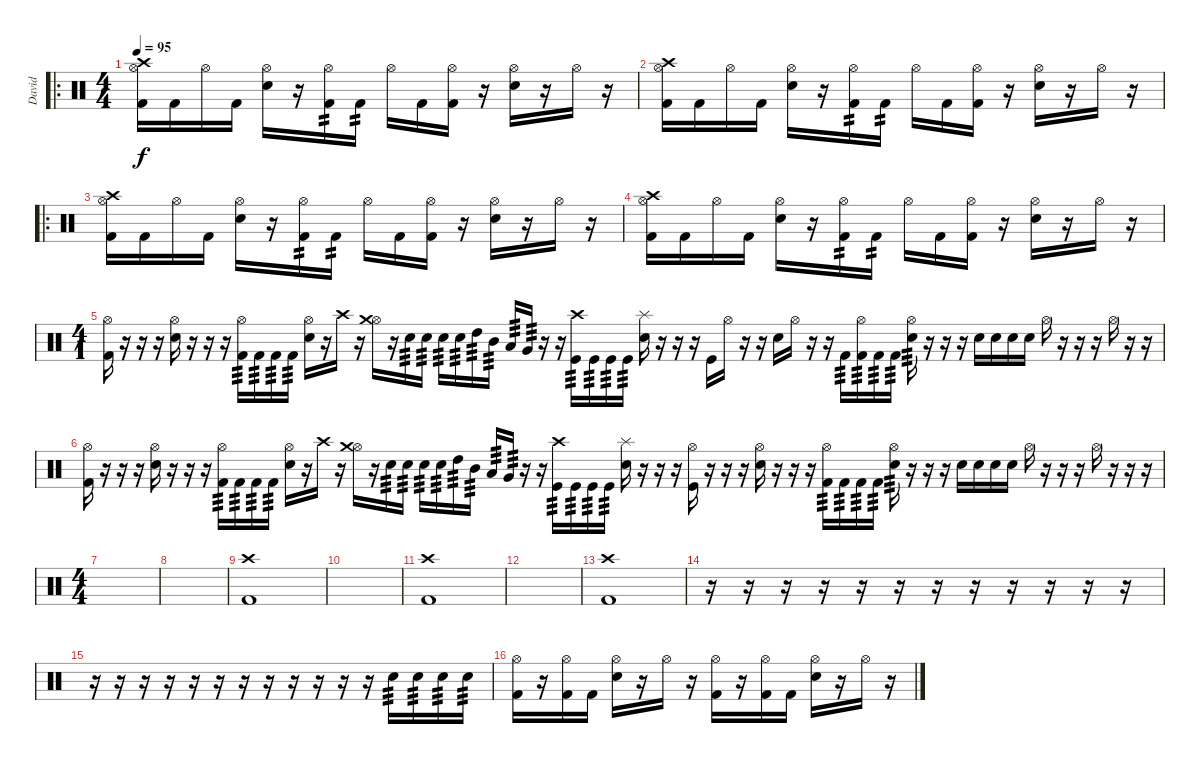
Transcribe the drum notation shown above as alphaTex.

\track ("David" "David") {instrument percussion}
\staff {score}
\articulation defaults
\ro
\ts (4 4)
\tempo 95
\clef neutral
\ks c
("Hi-Hat (open)" "Crash high (hit)" "Kick (hit) 2").16{dy f} "Kick (hit) 2".16 "Hi-Hat (open)".16 "Kick (hit) 2".16 ("Hi-Hat (open)" "Snare (hit) 2").16 r.16 ("Hi-Hat (open)" "Kick (hit) 2").16{tp 2} "Kick (hit) 2".16{tp 2} "Hi-Hat (open)".16 "Kick (hit) 2".16 ("Hi-Hat (open)" "Kick (hit) 2").16 r.16 ("Hi-Hat (open)" "Snare (hit) 2").16 r.16 "Hi-Hat (open)".16 r.16 |
("Hi-Hat (open)" "Crash high (hit)" "Kick (hit) 2").16 "Kick (hit) 2".16 "Hi-Hat (open)".16 "Kick (hit) 2".16 ("Hi-Hat (open)" "Snare (hit) 2").16 r.16 ("Hi-Hat (open)" "Kick (hit) 2").16{tp 2} "Kick (hit) 2".16{tp 2} "Hi-Hat (open)".16 "Kick (hit) 2".16 ("Hi-Hat (open)" "Kick (hit) 2").16 r.16 ("Hi-Hat (open)" "Snare (hit) 2").16 r.16 "Hi-Hat (open)".16 r.16 |
\ro
("Hi-Hat (open)" "Crash high (hit)" "Kick (hit) 2").16 "Kick (hit) 2".16 "Hi-Hat (open)".16 "Kick (hit) 2".16 ("Hi-Hat (open)" "Snare (hit) 2").16 r.16 ("Hi-Hat (open)" "Kick (hit) 2").16{tp 2} "Kick (hit) 2".16{tp 2} "Hi-Hat (open)".16 "Kick (hit) 2".16 ("Hi-Hat (open)" "Kick (hit) 2").16 r.16 ("Hi-Hat (open)" "Snare (hit) 2").16 r.16 "Hi-Hat (open)".16 r.16 |
("Hi-Hat (open)" "Crash high (hit)" "Kick (hit) 2").16 "Kick (hit) 2".16 "Hi-Hat (open)".16 "Kick (hit) 2".16 ("Hi-Hat (open)" "Snare (hit) 2").16 r.16 ("Hi-Hat (open)" "Kick (hit) 2").16{tp 2} "Kick (hit) 2".16{tp 2} "Hi-Hat (open)".16 "Kick (hit) 2".16 ("Hi-Hat (open)" "Kick (hit) 2").16 r.16 ("Hi-Hat (open)" "Snare (hit) 2").16 r.16 "Hi-Hat (open)".16 r.16 |
\ts (4 1)
("Hi-Hat (open)" "Kick (hit) 2").16 r.16 r.16 r.16 ("Hi-Hat (open)" "Snare (hit) 2").16 r.16 r.16 r.16 ("Hi-Hat (open)" "Kick (hit) 2").16{tp 3} "Kick (hit) 2".16{tp 3} "Kick (hit) 2".16{tp 3} "Kick (hit) 2".16{tp 3} ("Hi-Hat (open)" "Snare (hit) 2").16 r.16 "Crash high (hit)".16 r.16 ("Hi-Hat (open)" "Crash medium (hit)").16 r.16 "Snare (hit) 2".16{tp 3} "Snare (hit) 2".16{tp 3} "Snare (hit) 2".16{tp 3} "Snare (hit) 2".16{tp 3} "High Tom (hit)".16{tp 3} "Mid Tom (hit)".16{tp 3} "Low Tom (hit)".16{tp 3} "Very Low Tom (hit)".16{tp 3} r.16 r.16 ("Crash high (hit)" "Kick (hit)").16{tp 3} "Kick (hit)".16{tp 3} "Kick (hit)".16{tp 3} "Kick (hit)".16{tp 3} ("Splash (hit)" "Snare (hit) 2").16 r.16 r.16 r.16 "Kick (hit)".16 "Hi-Hat (open)".16 r.16 r.16 "Snare (hit) 2".16 "Hi-Hat (open)".16 r.16 r.16 "Kick (hit) 2".16{tp 3} ("Kick (hit) 2" "Hi-Hat (open)").16{tp 3} "Kick (hit) 2".16{tp 3} "Kick (hit) 2".16{tp 3} ("Hi-Hat (open)" "Snare (hit) 2").16{tp 3} r.16 r.16 r.16 "Snare (hit) 2".16 "Snare (hit) 2".16 "Snare (hit) 2".16 "Snare (hit) 2".16 "Hi-Hat (open)".16 r.16 r.16 r.16 "Hi-Hat (open)".16 r.16 r.16 |
("Hi-Hat (open)" "Kick (hit) 2").16 r.16 r.16 r.16 ("Hi-Hat (open)" "Snare (hit) 2").16 r.16 r.16 r.16 ("Hi-Hat (open)" "Kick (hit) 2").16{tp 3} "Kick (hit) 2".16{tp 3} "Kick (hit) 2".16{tp 3} "Kick (hit) 2".16{tp 3} ("Hi-Hat (open)" "Snare (hit) 2").16 r.16 "Crash high (hit)".16 r.16 ("Hi-Hat (open)" "Crash medium (hit)").16 r.16 "Snare (hit) 2".16{tp 3} "Snare (hit) 2".16{tp 3} "Snare (hit) 2".16{tp 3} "Snare (hit) 2".16{tp 3} "High Tom (hit)".16{tp 3} "Mid Tom (hit)".16{tp 3} "Low Tom (hit)".16{tp 3} "Very Low Tom (hit)".16{tp 3} r.16 r.16 ("Crash high (hit)" "Kick (hit)").16{tp 3} "Kick (hit)".16{tp 3} "Kick (hit)".16{tp 3} "Kick (hit)".16{tp 3} ("Splash (hit)" "Snare (hit) 2").16 r.16 r.16 r.16 ("Hi-Hat (open)" "Kick (hit)").16 r.16 r.16 r.16 ("Hi-Hat (open)" "Snare (hit) 2").16 r.16 r.16 r.16 ("Hi-Hat (open)" "Kick (hit) 2").16{tp 3} "Kick (hit) 2".16{tp 3} "Kick (hit) 2".16{tp 3} "Kick (hit) 2".16{tp 3} ("Hi-Hat (open)" "Snare (hit) 2").16{tp 3} r.16 r.16 r.16 "Snare (hit) 2".16 "Snare (hit) 2".16 "Snare (hit) 2".16 "Snare (hit) 2".16 "Hi-Hat (open)".16 r.16 r.16 r.16 "Hi-Hat (open)".16 r.16 r.16 r.16 |
\ts (4 4)
|
|
("Crash high (hit)" "Kick (hit) 2").1 |
|
("Crash high (hit)" "Kick (hit) 2").1 |
|
("Crash high (hit)" "Kick (hit) 2").1 |
r.16 r.16 r.16 r.16 r.16 r.16 r.16 r.16 r.16 r.16 r.16 r.16 |
r.16 r.16 r.16 r.16 r.16 r.16 r.16 r.16 r.16 r.16 r.16 r.16 "Snare (hit) 2".16{tp 3} "Snare (hit) 2".16{tp 3} "Snare (hit) 2".16{tp 3} "Snare (hit) 2".16{tp 3} |
("Hi-Hat (open)" "Kick (hit) 2").16 r.16 ("Hi-Hat (open)" "Kick (hit) 2").16 "Kick (hit) 2".16 ("Hi-Hat (open)" "Snare (hit) 2").16 r.16 "Hi-Hat (open)".16 r.16 ("Hi-Hat (open)" "Kick (hit) 2").16 r.16 ("Hi-Hat (open)" "Kick (hit) 2").16 "Kick (hit) 2".16 ("Hi-Hat (open)" "Snare (hit) 2").16 r.16 "Hi-Hat (open)".16 r.16
